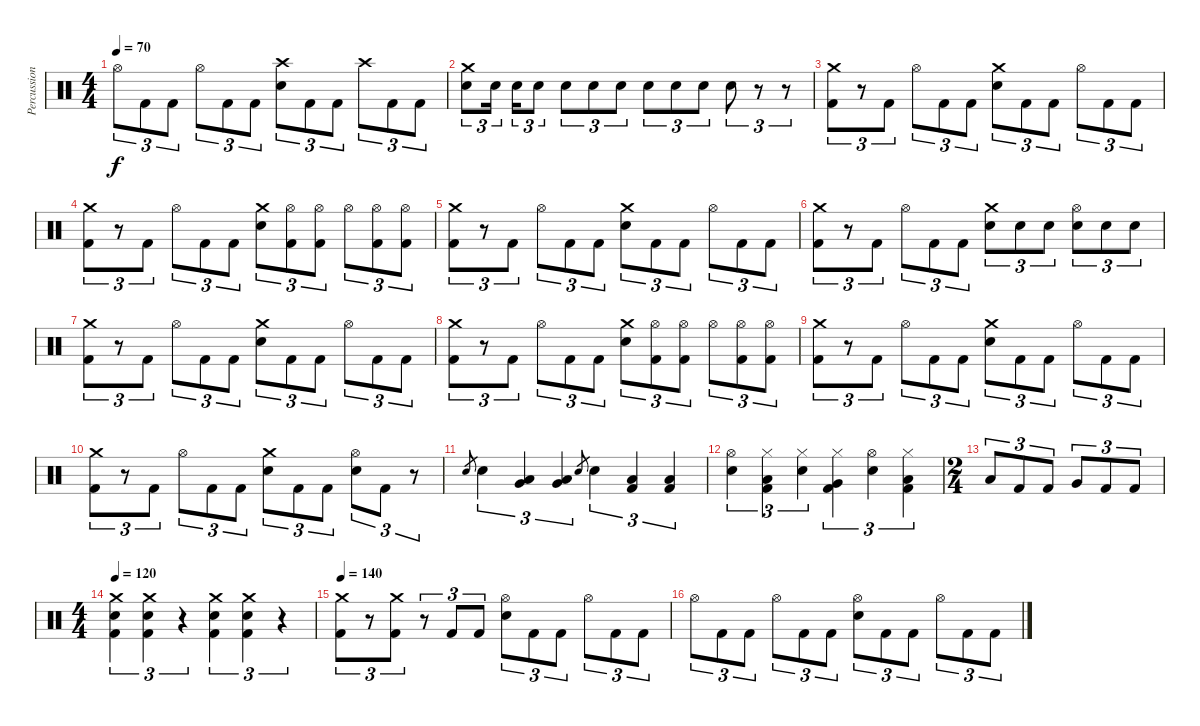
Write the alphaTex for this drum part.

\track ("Percussion" "Percussion") {instrument percussion}
\staff {score}
\articulation defaults
\ts (4 4)
\tempo 70
\clef neutral
\ks c "Hi-Hat (open)".8{tu (3 2) dy f} "Kick (hit) 2".8{tu (3 2)} "Kick (hit) 2".8{tu (3 2)} "Hi-Hat (open)".8{tu (3 2)} "Kick (hit) 2".8{tu (3 2)} "Kick (hit) 2".8{tu (3 2)}
("Crash high (hit)" "Electric Snare (hit)").8{tu (3 2)} "Kick (hit) 2".8{tu (3 2)} "Kick (hit) 2".8{tu (3 2)} "Crash high (hit)".8{tu (3 2)} "Kick (hit) 2".8{tu (3 2)} "Kick (hit) 2".8{tu (3 2)} |
("Crash medium (hit)" "Electric Snare (hit)").8{tu (3 2)} "Electric Snare (hit)".16{tu (3 2) beam splitsecondary} "Electric Snare (hit)".16{tu (3 2)} "Electric Snare (hit)".8{tu (3 2)} "Electric Snare (hit)".8{tu (3 2)} "Electric Snare (hit)".8{tu (3 2)} "Electric Snare (hit)".8{tu (3 2)} "Electric Snare (hit)".8{tu (3 2)} "Electric Snare (hit)".8{tu (3 2)} "Electric Snare (hit)".8{tu (3 2)} "Electric Snare (hit)".8{tu (3 2)} r.8{tu (3 2)} r.8{tu (3 2)} |
("Crash medium (hit)" "Kick (hit) 2").8{tu (3 2)} r.8{tu (3 2)} "Kick (hit) 2".8{tu (3 2)} "Hi-Hat (open)".8{tu (3 2)} "Kick (hit) 2".8{tu (3 2)} "Kick (hit) 2".8{tu (3 2)} ("Crash medium (hit)" "Electric Snare (hit)").8{tu (3 2)} "Kick (hit) 2".8{tu (3 2)} "Kick (hit) 2".8{tu (3 2)} "Hi-Hat (open)".8{tu (3 2)} "Kick (hit) 2".8{tu (3 2)} "Kick (hit) 2".8{tu (3 2)} |
("Crash medium (hit)" "Kick (hit) 2").8{tu (3 2)} r.8{tu (3 2)} "Kick (hit) 2".8{tu (3 2)} "Hi-Hat (open)".8{tu (3 2)} "Kick (hit) 2".8{tu (3 2)} "Kick (hit) 2".8{tu (3 2)} ("Crash medium (hit)" "Electric Snare (hit)").8{tu (3 2)} ("Hi-Hat (open)" "Kick (hit) 2").8{tu (3 2)} ("Hi-Hat (open)" "Kick (hit) 2").8{tu (3 2)} "Hi-Hat (open)".8{tu (3 2)} ("Hi-Hat (open)" "Kick (hit) 2").8{tu (3 2)} ("Hi-Hat (open)" "Kick (hit) 2").8{tu (3 2)} |
("Crash medium (hit)" "Kick (hit) 2").8{tu (3 2)} r.8{tu (3 2)} "Kick (hit) 2".8{tu (3 2)} "Hi-Hat (open)".8{tu (3 2)} "Kick (hit) 2".8{tu (3 2)} "Kick (hit) 2".8{tu (3 2)} ("Crash medium (hit)" "Electric Snare (hit)").8{tu (3 2)} "Kick (hit) 2".8{tu (3 2)} "Kick (hit) 2".8{tu (3 2)} "Hi-Hat (open)".8{tu (3 2)} "Kick (hit) 2".8{tu (3 2)} "Kick (hit) 2".8{tu (3 2)} |
("Crash medium (hit)" "Kick (hit) 2").8{tu (3 2)} r.8{tu (3 2)} "Kick (hit) 2".8{tu (3 2)} "Hi-Hat (open)".8{tu (3 2)} "Kick (hit) 2".8{tu (3 2)} "Kick (hit) 2".8{tu (3 2)} ("Crash medium (hit)" "Electric Snare (hit)").8{tu (3 2)} "Electric Snare (hit)".8{tu (3 2)} "Electric Snare (hit)".8{tu (3 2)} ("Hi-Hat (open)" "Electric Snare (hit)").8{tu (3 2)} "Electric Snare (hit)".8{tu (3 2)} "Electric Snare (hit)".8{tu (3 2)} |
("Crash medium (hit)" "Kick (hit) 2").8{tu (3 2)} r.8{tu (3 2)} "Kick (hit) 2".8{tu (3 2)} "Hi-Hat (open)".8{tu (3 2)} "Kick (hit) 2".8{tu (3 2)} "Kick (hit) 2".8{tu (3 2)} ("Crash medium (hit)" "Electric Snare (hit)").8{tu (3 2)} "Kick (hit) 2".8{tu (3 2)} "Kick (hit) 2".8{tu (3 2)} "Hi-Hat (open)".8{tu (3 2)} "Kick (hit) 2".8{tu (3 2)} "Kick (hit) 2".8{tu (3 2)} |
("Crash medium (hit)" "Kick (hit) 2").8{tu (3 2)} r.8{tu (3 2)} "Kick (hit) 2".8{tu (3 2)} "Hi-Hat (open)".8{tu (3 2)} "Kick (hit) 2".8{tu (3 2)} "Kick (hit) 2".8{tu (3 2)} ("Crash medium (hit)" "Electric Snare (hit)").8{tu (3 2)} ("Hi-Hat (open)" "Kick (hit) 2").8{tu (3 2)} ("Hi-Hat (open)" "Kick (hit) 2").8{tu (3 2)} "Hi-Hat (open)".8{tu (3 2)} ("Hi-Hat (open)" "Kick (hit) 2").8{tu (3 2)} ("Hi-Hat (open)" "Kick (hit) 2").8{tu (3 2)} |
("Crash medium (hit)" "Kick (hit) 2").8{tu (3 2)} r.8{tu (3 2)} "Kick (hit) 2".8{tu (3 2)} "Hi-Hat (open)".8{tu (3 2)} "Kick (hit) 2".8{tu (3 2)} "Kick (hit) 2".8{tu (3 2)} ("Crash medium (hit)" "Electric Snare (hit)").8{tu (3 2)} "Kick (hit) 2".8{tu (3 2)} "Kick (hit) 2".8{tu (3 2)} "Hi-Hat (open)".8{tu (3 2)} "Kick (hit) 2".8{tu (3 2)} "Kick (hit) 2".8{tu (3 2)} |
("Crash medium (hit)" "Kick (hit) 2").8{tu (3 2)} r.8{tu (3 2)} "Kick (hit) 2".8{tu (3 2)} "Hi-Hat (open)".8{tu (3 2)} "Kick (hit) 2".8{tu (3 2)} "Kick (hit) 2".8{tu (3 2)} ("Crash medium (hit)" "Electric Snare (hit)").8{tu (3 2)} "Kick (hit) 2".8{tu (3 2)} "Kick (hit) 2".8{tu (3 2)} ("Hi-Hat (open)" "Electric Snare (hit)").8{tu (3 2)} "Kick (hit) 2".8{tu (3 2)} r.8{tu (3 2)} |
"Electric Snare (hit)".8{gr} "Electric Snare (hit)".4{tu (3 2)} ("Low Tom (hit)" "Very Low Tom (hit)").4{tu (3 2)} ("Very Low Tom (hit)" "Low Floor Tom (hit)").4{tu (3 2)} "Electric Snare (hit)".8{gr} "Electric Snare (hit)".4{tu (3 2)} ("Low Floor Tom (hit)" "Kick (hit) 2").4{tu (3 2)} ("Low Floor Tom (hit)" "Kick (hit) 2").4{tu (3 2)} |
("Hi-Hat (open)" "Electric Snare (hit)").4{tu (3 2)} ("Hi-Hat (closed)" "Low Floor Tom (hit)" "Kick (hit) 2").4{tu (3 2)} ("Hi-Hat (closed)" "Electric Snare (hit)").4{tu (3 2)} ("Hi-Hat (closed)" "Very Low Tom (hit)" "Kick (hit) 2").4{tu (3 2)} ("Hi-Hat (open)" "Electric Snare (hit)").4{tu (3 2)} ("Hi-Hat (closed)" "Low Floor Tom (hit)" "Kick (hit) 2").4{tu (3 2)} |
\ts (2 4)
"Low Tom (hit)".8{tu (3 2)} "Kick (hit) 2".8{tu (3 2)} "Kick (hit) 2".8{tu (3 2)} "Very Low Tom (hit)".8{tu (3 2)} "Kick (hit) 2".8{tu (3 2)} "Kick (hit) 2".8{tu (3 2)} |
\ts (4 4)
\tempo 120
("Crash medium (hit)" "Electric Snare (hit)" "Kick (hit) 2").4{tu (3 2)} ("Crash medium (hit)" "Electric Snare (hit)" "Kick (hit) 2").4{tu (3 2)} r.4{tu (3 2)} ("Crash medium (hit)" "Electric Snare (hit)" "Kick (hit) 2").4{tu (3 2)} ("Crash medium (hit)" "Electric Snare (hit)" "Kick (hit) 2").4{tu (3 2)} r.4{tu (3 2)} |
\tempo 140
("Crash medium (hit)" "Kick (hit) 2").8{tu (3 2)} r.8{tu (3 2)} ("Crash medium (hit)" "Kick (hit) 2").8{tu (3 2)} r.8{tu (3 2)} "Kick (hit) 2".8{tu (3 2)} "Kick (hit) 2".8{tu (3 2)} ("Hi-Hat (open)" "Electric Snare (hit)").8{tu (3 2)} "Kick (hit) 2".8{tu (3 2)} "Kick (hit) 2".8{tu (3 2)} "Hi-Hat (open)".8{tu (3 2)} "Kick (hit) 2".8{tu (3 2)} "Kick (hit) 2".8{tu (3 2)} |
"Hi-Hat (open)".8{tu (3 2)} "Kick (hit) 2".8{tu (3 2)} "Kick (hit) 2".8{tu (3 2)} "Hi-Hat (open)".8{tu (3 2)} "Kick (hit) 2".8{tu (3 2)} "Kick (hit) 2".8{tu (3 2)} ("Hi-Hat (open)" "Electric Snare (hit)").8{tu (3 2)} "Kick (hit) 2".8{tu (3 2)} "Kick (hit) 2".8{tu (3 2)} "Hi-Hat (open)".8{tu (3 2)} "Kick (hit) 2".8{tu (3 2)} "Kick (hit) 2".8{tu (3 2)}
